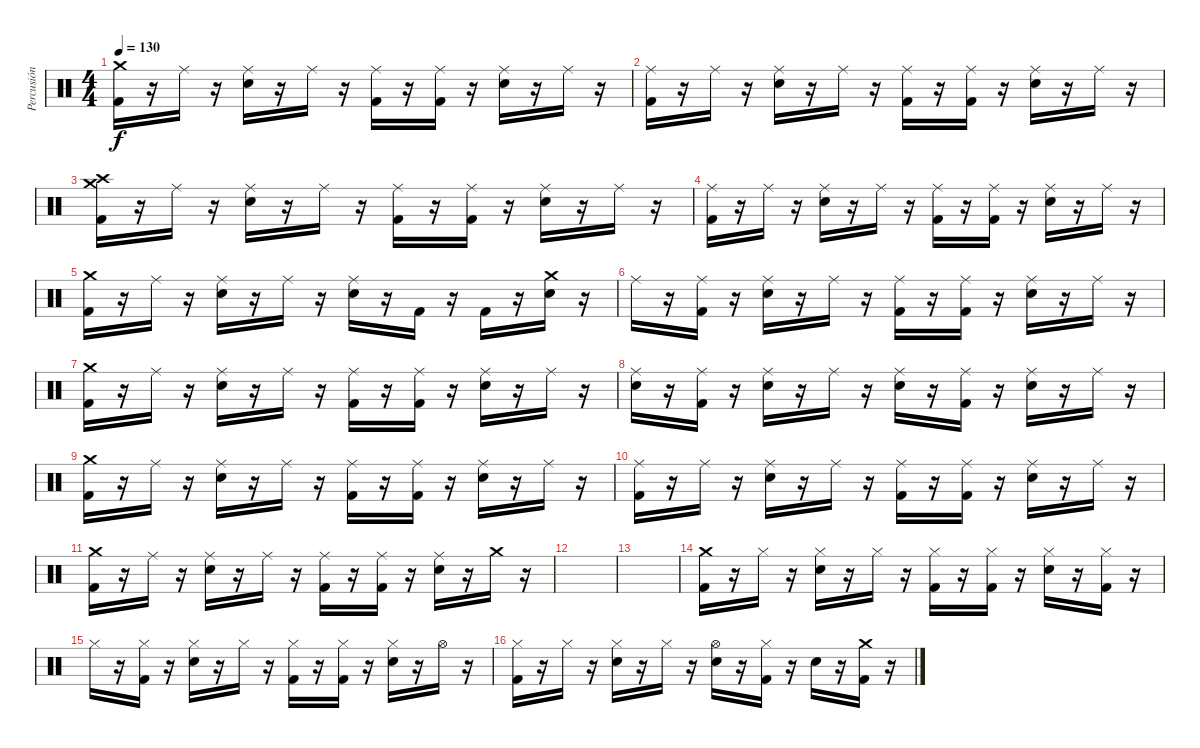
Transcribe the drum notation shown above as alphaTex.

\track ("Percusión" "Percusión") {instrument percussion}
\staff {score}
\articulation defaults
\ts (4 4)
\tempo 130
\clef neutral
\ks c
("Crash medium (hit)" "Kick (hit) 2").16{dy f} r.16 "Ride (middle)".16 r.16 ("Ride (middle)" "Electric Snare (hit)").16 r.16 "Ride (middle)".16 r.16 ("Ride (middle)" "Kick (hit) 2").16 r.16 ("Ride (middle)" "Kick (hit) 2").16 r.16 ("Ride (middle)" "Electric Snare (hit)").16 r.16 "Ride (middle)".16 r.16 |
("Ride (middle)" "Kick (hit) 2").16 r.16 "Ride (middle)".16 r.16 ("Ride (middle)" "Electric Snare (hit)").16 r.16 "Ride (middle)".16 r.16 ("Ride (middle)" "Kick (hit) 2").16 r.16 ("Ride (middle)" "Kick (hit) 2").16 r.16 ("Ride (middle)" "Electric Snare (hit)").16 r.16 "Ride (middle)".16 r.16 |
("Crash medium (hit)" "Crash high (hit)" "Kick (hit) 2").16 r.16 "Ride (middle)".16 r.16 ("Ride (middle)" "Electric Snare (hit)").16 r.16 "Ride (middle)".16 r.16 ("Ride (middle)" "Kick (hit) 2").16 r.16 ("Ride (middle)" "Kick (hit) 2").16 r.16 ("Ride (middle)" "Electric Snare (hit)").16 r.16 "Ride (middle)".16 r.16 |
("Ride (middle)" "Kick (hit) 2").16 r.16 "Ride (middle)".16 r.16 ("Ride (middle)" "Electric Snare (hit)").16 r.16 "Ride (middle)".16 r.16 ("Ride (middle)" "Kick (hit) 2").16 r.16 ("Ride (middle)" "Kick (hit) 2").16 r.16 ("Ride (middle)" "Electric Snare (hit)").16 r.16 "Ride (middle)".16 r.16 |
("Crash medium (hit)" "Kick (hit) 2").16 r.16 "Ride (middle)".16 r.16 ("Ride (middle)" "Electric Snare (hit)").16 r.16 "Ride (middle)".16 r.16 ("Ride (middle)" "Electric Snare (hit)").16 r.16 "Kick (hit) 2".16 r.16 "Kick (hit) 2".16 r.16 ("Crash medium (hit)" "Electric Snare (hit)").16 r.16 |
"Ride (middle)".16 r.16 ("Ride (middle)" "Kick (hit) 2").16 r.16 ("Ride (middle)" "Electric Snare (hit)").16 r.16 "Ride (middle)".16 r.16 ("Ride (middle)" "Kick (hit) 2").16 r.16 ("Ride (middle)" "Kick (hit) 2").16 r.16 ("Ride (middle)" "Electric Snare (hit)").16 r.16 "Ride (middle)".16 r.16 |
("Crash medium (hit)" "Kick (hit) 2").16 r.16 "Ride (middle)".16 r.16 ("Ride (middle)" "Electric Snare (hit)").16 r.16 "Ride (middle)".16 r.16 ("Ride (middle)" "Kick (hit) 2").16 r.16 ("Ride (middle)" "Kick (hit) 2").16 r.16 ("Ride (middle)" "Electric Snare (hit)").16 r.16 "Ride (middle)".16 r.16 |
("Ride (middle)" "Electric Snare (hit)").16 r.16 ("Ride (middle)" "Kick (hit) 2").16 r.16 ("Ride (middle)" "Electric Snare (hit)").16 r.16 "Ride (middle)".16 r.16 ("Ride (middle)" "Electric Snare (hit)").16 r.16 ("Ride (middle)" "Kick (hit) 2").16 r.16 ("Ride (middle)" "Electric Snare (hit)").16 r.16 "Ride (middle)".16 r.16 |
("Crash medium (hit)" "Kick (hit) 2").16 r.16 "Ride (middle)".16 r.16 ("Ride (middle)" "Electric Snare (hit)").16 r.16 "Ride (middle)".16 r.16 ("Ride (middle)" "Kick (hit) 2").16 r.16 ("Ride (middle)" "Kick (hit) 2").16 r.16 ("Ride (middle)" "Electric Snare (hit)").16 r.16 "Ride (middle)".16 r.16 |
("Ride (middle)" "Kick (hit) 2").16 r.16 "Ride (middle)".16 r.16 ("Ride (middle)" "Electric Snare (hit)").16 r.16 "Ride (middle)".16 r.16 ("Ride (middle)" "Kick (hit) 2").16 r.16 ("Ride (middle)" "Kick (hit) 2").16 r.16 ("Ride (middle)" "Electric Snare (hit)").16 r.16 "Ride (middle)".16 r.16 |
("Crash medium (hit)" "Kick (hit) 2").16 r.16 "Ride (middle)".16 r.16 ("Ride (middle)" "Electric Snare (hit)").16 r.16 "Ride (middle)".16 r.16 ("Ride (middle)" "Kick (hit) 2").16 r.16 ("Ride (middle)" "Kick (hit) 2").16 r.16 ("Ride (middle)" "Electric Snare (hit)").16 r.16 "Crash medium (hit)".16 r.16 |
|
|
("Crash medium (hit)" "Kick (hit) 2").16 r.16 "Hi-Hat (closed)".16 r.16 ("Hi-Hat (closed)" "Electric Snare (hit)").16 r.16 "Hi-Hat (closed)".16 r.16 ("Hi-Hat (closed)" "Kick (hit) 2").16 r.16 ("Hi-Hat (closed)" "Kick (hit) 2").16 r.16 ("Hi-Hat (closed)" "Electric Snare (hit)").16 r.16 ("Hi-Hat (closed)" "Kick (hit) 2").16 r.16 |
"Hi-Hat (closed)".16 r.16 ("Hi-Hat (closed)" "Kick (hit) 2").16 r.16 ("Hi-Hat (closed)" "Electric Snare (hit)").16 r.16 "Hi-Hat (closed)".16 r.16 ("Hi-Hat (closed)" "Kick (hit) 2").16 r.16 ("Hi-Hat (closed)" "Kick (hit) 2").16 r.16 ("Hi-Hat (closed)" "Electric Snare (hit)").16 r.16 "Hi-Hat (open)".16 r.16 |
("Hi-Hat (closed)" "Kick (hit) 2").16 r.16 "Hi-Hat (closed)".16 r.16 ("Hi-Hat (closed)" "Electric Snare (hit)").16 r.16 "Hi-Hat (closed)".16 r.16 ("Hi-Hat (open)" "Electric Snare (hit)").16 r.16 ("Hi-Hat (closed)" "Kick (hit) 2").16 r.16 "Electric Snare (hit)".16 r.16 ("Crash medium (hit)" "Kick (hit) 2").16 r.16
